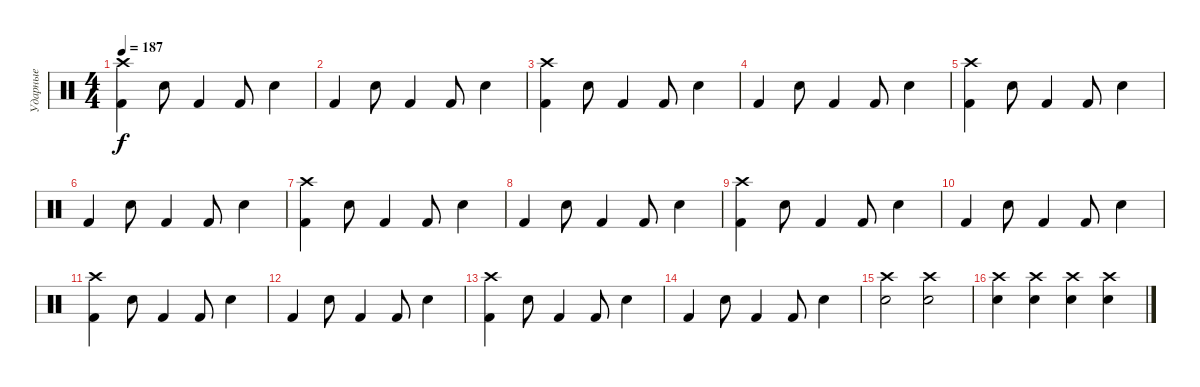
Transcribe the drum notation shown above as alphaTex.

\track ("Ударные" "Ударные") {instrument percussion}
\staff {score}
\articulation defaults
\ts (4 4)
\tempo 187
\clef neutral
\ks c
("Crash high (hit)" "Kick (hit) 2").4{dy f} "Snare (hit) 2".8 "Kick (hit) 2".4 "Kick (hit) 2".8 "Snare (hit) 2".4 |
"Kick (hit) 2".4 "Snare (hit) 2".8 "Kick (hit) 2".4 "Kick (hit) 2".8 "Snare (hit) 2".4 |
("Crash high (hit)" "Kick (hit) 2").4 "Snare (hit) 2".8 "Kick (hit) 2".4 "Kick (hit) 2".8 "Snare (hit) 2".4 |
"Kick (hit) 2".4 "Snare (hit) 2".8 "Kick (hit) 2".4 "Kick (hit) 2".8 "Snare (hit) 2".4 |
("Crash high (hit)" "Kick (hit) 2").4 "Snare (hit) 2".8 "Kick (hit) 2".4 "Kick (hit) 2".8 "Snare (hit) 2".4 |
"Kick (hit) 2".4 "Snare (hit) 2".8 "Kick (hit) 2".4 "Kick (hit) 2".8 "Snare (hit) 2".4 |
("Crash high (hit)" "Kick (hit) 2").4 "Snare (hit) 2".8 "Kick (hit) 2".4 "Kick (hit) 2".8 "Snare (hit) 2".4 |
"Kick (hit) 2".4 "Snare (hit) 2".8 "Kick (hit) 2".4 "Kick (hit) 2".8 "Snare (hit) 2".4 |
("Crash high (hit)" "Kick (hit) 2").4 "Snare (hit) 2".8 "Kick (hit) 2".4 "Kick (hit) 2".8 "Snare (hit) 2".4 |
"Kick (hit) 2".4 "Snare (hit) 2".8 "Kick (hit) 2".4 "Kick (hit) 2".8 "Snare (hit) 2".4 |
("Crash high (hit)" "Kick (hit) 2").4 "Snare (hit) 2".8 "Kick (hit) 2".4 "Kick (hit) 2".8 "Snare (hit) 2".4 |
"Kick (hit) 2".4 "Snare (hit) 2".8 "Kick (hit) 2".4 "Kick (hit) 2".8 "Snare (hit) 2".4 |
("Crash high (hit)" "Kick (hit) 2").4 "Snare (hit) 2".8 "Kick (hit) 2".4 "Kick (hit) 2".8 "Snare (hit) 2".4 |
"Kick (hit) 2".4 "Snare (hit) 2".8 "Kick (hit) 2".4 "Kick (hit) 2".8 "Snare (hit) 2".4 |
("Crash high (hit)" "Snare (hit) 2").2 ("Crash high (hit)" "Snare (hit) 2").2 |
("Crash high (hit)" "Snare (hit) 2").4 ("Crash high (hit)" "Snare (hit) 2").4 ("Crash high (hit)" "Snare (hit) 2").4 ("Crash high (hit)" "Snare (hit) 2").4
